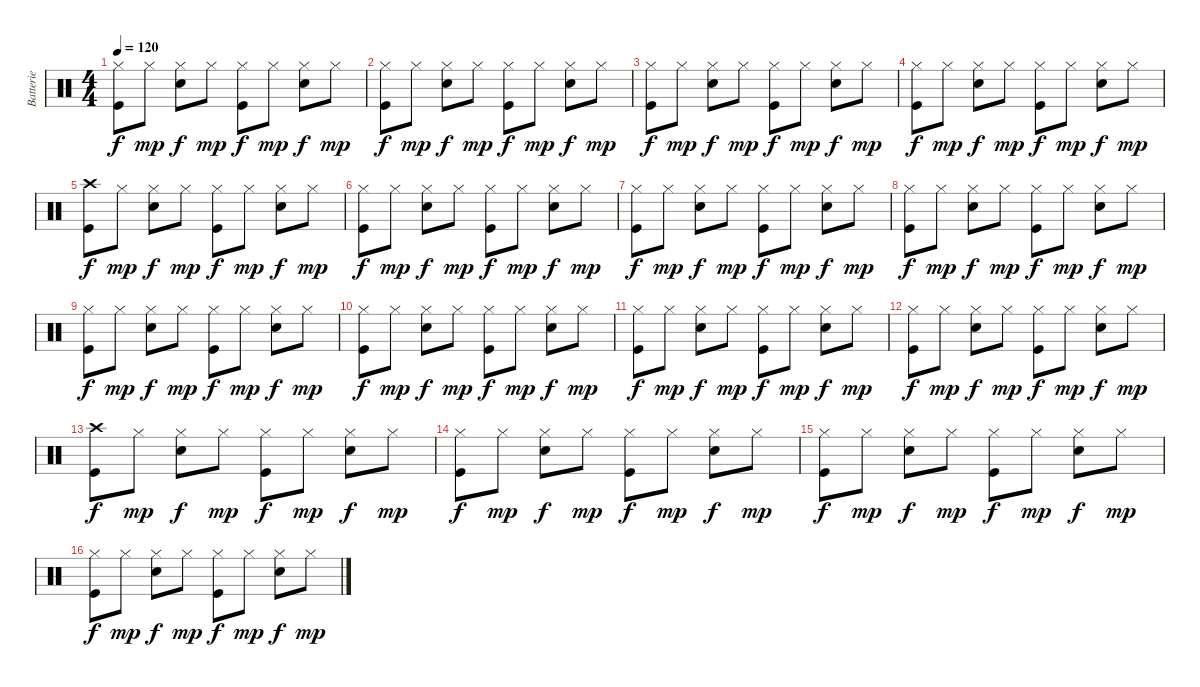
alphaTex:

\track ("Batterie" "Batterie") {instrument percussion}
\staff {score}
\articulation defaults
\ts (4 4)
\tempo 120
\clef neutral
\ks c
("Hi-Hat (closed)" "Kick (hit)").8{dy f} "Hi-Hat (closed)".8{dy mp} ("Hi-Hat (closed)" "Snare (hit) 2").8{dy f} "Hi-Hat (closed)".8{dy mp} ("Hi-Hat (closed)" "Kick (hit)").8{dy f} "Hi-Hat (closed)".8{dy mp} ("Hi-Hat (closed)" "Snare (hit) 2").8{dy f} "Hi-Hat (closed)".8{dy mp} |
("Hi-Hat (closed)" "Kick (hit)").8{dy f} "Hi-Hat (closed)".8{dy mp} ("Hi-Hat (closed)" "Snare (hit) 2").8{dy f} "Hi-Hat (closed)".8{dy mp} ("Hi-Hat (closed)" "Kick (hit)").8{dy f} "Hi-Hat (closed)".8{dy mp} ("Hi-Hat (closed)" "Snare (hit) 2").8{dy f} "Hi-Hat (closed)".8{dy mp} |
("Hi-Hat (closed)" "Kick (hit)").8{dy f} "Hi-Hat (closed)".8{dy mp} ("Hi-Hat (closed)" "Snare (hit) 2").8{dy f} "Hi-Hat (closed)".8{dy mp} ("Hi-Hat (closed)" "Kick (hit)").8{dy f} "Hi-Hat (closed)".8{dy mp} ("Hi-Hat (closed)" "Snare (hit) 2").8{dy f} "Hi-Hat (closed)".8{dy mp} |
("Hi-Hat (closed)" "Kick (hit)").8{dy f} "Hi-Hat (closed)".8{dy mp} ("Hi-Hat (closed)" "Snare (hit) 2").8{dy f} "Hi-Hat (closed)".8{dy mp} ("Hi-Hat (closed)" "Kick (hit)").8{dy f} "Hi-Hat (closed)".8{dy mp} ("Hi-Hat (closed)" "Snare (hit) 2").8{dy f} "Hi-Hat (closed)".8{dy mp} |
("Crash high (hit)" "Kick (hit)").8{dy f} "Hi-Hat (closed)".8{dy mp} ("Hi-Hat (closed)" "Snare (hit) 2").8{dy f} "Hi-Hat (closed)".8{dy mp} ("Hi-Hat (closed)" "Kick (hit)").8{dy f} "Hi-Hat (closed)".8{dy mp} ("Hi-Hat (closed)" "Snare (hit) 2").8{dy f} "Hi-Hat (closed)".8{dy mp} |
("Hi-Hat (closed)" "Kick (hit)").8{dy f} "Hi-Hat (closed)".8{dy mp} ("Hi-Hat (closed)" "Snare (hit) 2").8{dy f} "Hi-Hat (closed)".8{dy mp} ("Hi-Hat (closed)" "Kick (hit)").8{dy f} "Hi-Hat (closed)".8{dy mp} ("Hi-Hat (closed)" "Snare (hit) 2").8{dy f} "Hi-Hat (closed)".8{dy mp} |
("Hi-Hat (closed)" "Kick (hit)").8{dy f} "Hi-Hat (closed)".8{dy mp} ("Hi-Hat (closed)" "Snare (hit) 2").8{dy f} "Hi-Hat (closed)".8{dy mp} ("Hi-Hat (closed)" "Kick (hit)").8{dy f} "Hi-Hat (closed)".8{dy mp} ("Hi-Hat (closed)" "Snare (hit) 2").8{dy f} "Hi-Hat (closed)".8{dy mp} |
("Hi-Hat (closed)" "Kick (hit)").8{dy f} "Hi-Hat (closed)".8{dy mp} ("Hi-Hat (closed)" "Snare (hit) 2").8{dy f} "Hi-Hat (closed)".8{dy mp} ("Hi-Hat (closed)" "Kick (hit)").8{dy f} "Hi-Hat (closed)".8{dy mp} ("Hi-Hat (closed)" "Snare (hit) 2").8{dy f} "Hi-Hat (closed)".8{dy mp} |
("Hi-Hat (closed)" "Kick (hit)").8{dy f} "Hi-Hat (closed)".8{dy mp} ("Hi-Hat (closed)" "Snare (hit) 2").8{dy f} "Hi-Hat (closed)".8{dy mp} ("Hi-Hat (closed)" "Kick (hit)").8{dy f} "Hi-Hat (closed)".8{dy mp} ("Hi-Hat (closed)" "Snare (hit) 2").8{dy f} "Hi-Hat (closed)".8{dy mp} |
("Hi-Hat (closed)" "Kick (hit)").8{dy f} "Hi-Hat (closed)".8{dy mp} ("Hi-Hat (closed)" "Snare (hit) 2").8{dy f} "Hi-Hat (closed)".8{dy mp} ("Hi-Hat (closed)" "Kick (hit)").8{dy f} "Hi-Hat (closed)".8{dy mp} ("Hi-Hat (closed)" "Snare (hit) 2").8{dy f} "Hi-Hat (closed)".8{dy mp} |
("Hi-Hat (closed)" "Kick (hit)").8{dy f} "Hi-Hat (closed)".8{dy mp} ("Hi-Hat (closed)" "Snare (hit) 2").8{dy f} "Hi-Hat (closed)".8{dy mp} ("Hi-Hat (closed)" "Kick (hit)").8{dy f} "Hi-Hat (closed)".8{dy mp} ("Hi-Hat (closed)" "Snare (hit) 2").8{dy f} "Hi-Hat (closed)".8{dy mp} |
("Hi-Hat (closed)" "Kick (hit)").8{dy f} "Hi-Hat (closed)".8{dy mp} ("Hi-Hat (closed)" "Snare (hit) 2").8{dy f} "Hi-Hat (closed)".8{dy mp} ("Hi-Hat (closed)" "Kick (hit)").8{dy f} "Hi-Hat (closed)".8{dy mp} ("Hi-Hat (closed)" "Snare (hit) 2").8{dy f} "Hi-Hat (closed)".8{dy mp} |
("Crash high (hit)" "Kick (hit)").8{dy f} "Hi-Hat (closed)".8{dy mp} ("Hi-Hat (closed)" "Snare (hit) 2").8{dy f} "Hi-Hat (closed)".8{dy mp} ("Hi-Hat (closed)" "Kick (hit)").8{dy f} "Hi-Hat (closed)".8{dy mp} ("Hi-Hat (closed)" "Snare (hit) 2").8{dy f} "Hi-Hat (closed)".8{dy mp} |
("Hi-Hat (closed)" "Kick (hit)").8{dy f} "Hi-Hat (closed)".8{dy mp} ("Hi-Hat (closed)" "Snare (hit) 2").8{dy f} "Hi-Hat (closed)".8{dy mp} ("Hi-Hat (closed)" "Kick (hit)").8{dy f} "Hi-Hat (closed)".8{dy mp} ("Hi-Hat (closed)" "Snare (hit) 2").8{dy f} "Hi-Hat (closed)".8{dy mp} |
("Hi-Hat (closed)" "Kick (hit)").8{dy f} "Hi-Hat (closed)".8{dy mp} ("Hi-Hat (closed)" "Snare (hit) 2").8{dy f} "Hi-Hat (closed)".8{dy mp} ("Hi-Hat (closed)" "Kick (hit)").8{dy f} "Hi-Hat (closed)".8{dy mp} ("Hi-Hat (closed)" "Snare (hit) 2").8{dy f} "Hi-Hat (closed)".8{dy mp} |
("Hi-Hat (closed)" "Kick (hit)").8{dy f} "Hi-Hat (closed)".8{dy mp} ("Hi-Hat (closed)" "Snare (hit) 2").8{dy f} "Hi-Hat (closed)".8{dy mp} ("Hi-Hat (closed)" "Kick (hit)").8{dy f} "Hi-Hat (closed)".8{dy mp} ("Hi-Hat (closed)" "Snare (hit) 2").8{dy f} "Hi-Hat (closed)".8{dy mp}
